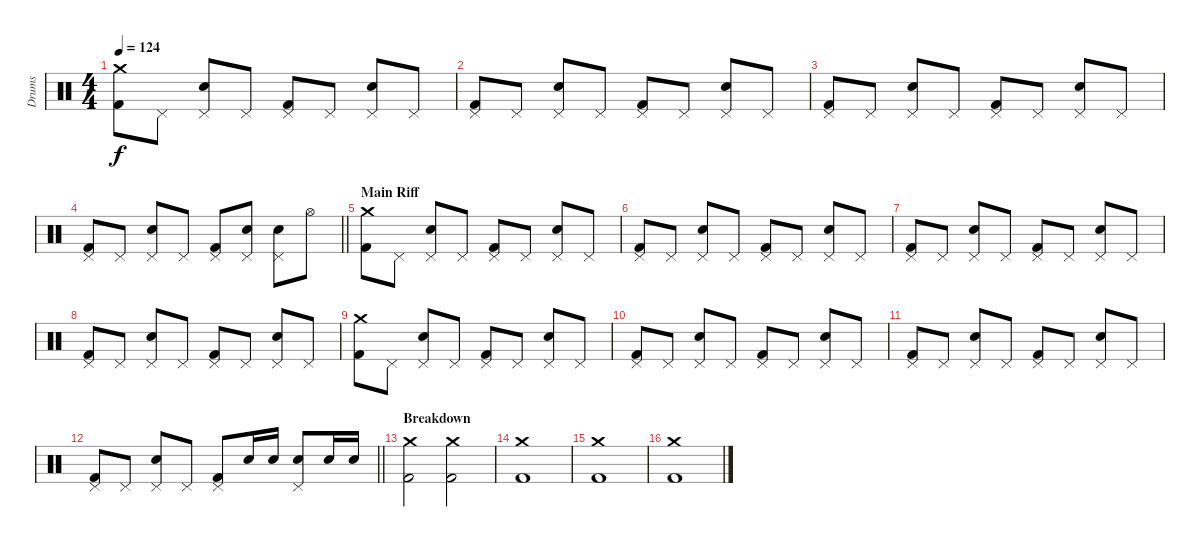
\track ("Drums" "Drums") {instrument percussion}
\staff {score}
\articulation defaults
\ts (4 4)
\tempo 124
\clef neutral
\ks c
("Kick (hit) 2" "Crash medium (hit)").8{dy f} "Pedal Hi-Hat (hit)".8 ("Electric Snare (hit)" "Pedal Hi-Hat (hit)").8 "Pedal Hi-Hat (hit)".8 ("Kick (hit) 2" "Pedal Hi-Hat (hit)").8 "Pedal Hi-Hat (hit)".8 ("Electric Snare (hit)" "Pedal Hi-Hat (hit)").8 "Pedal Hi-Hat (hit)".8 |
("Kick (hit) 2" "Pedal Hi-Hat (hit)").8 "Pedal Hi-Hat (hit)".8 ("Electric Snare (hit)" "Pedal Hi-Hat (hit)").8 "Pedal Hi-Hat (hit)".8 ("Kick (hit) 2" "Pedal Hi-Hat (hit)").8 "Pedal Hi-Hat (hit)".8 ("Electric Snare (hit)" "Pedal Hi-Hat (hit)").8 "Pedal Hi-Hat (hit)".8 |
("Kick (hit) 2" "Pedal Hi-Hat (hit)").8 "Pedal Hi-Hat (hit)".8 ("Electric Snare (hit)" "Pedal Hi-Hat (hit)").8 "Pedal Hi-Hat (hit)".8 ("Kick (hit) 2" "Pedal Hi-Hat (hit)").8 "Pedal Hi-Hat (hit)".8 ("Electric Snare (hit)" "Pedal Hi-Hat (hit)").8 "Pedal Hi-Hat (hit)".8 |
\barLineRight lightlight
("Kick (hit) 2" "Pedal Hi-Hat (hit)").8 "Pedal Hi-Hat (hit)".8 ("Electric Snare (hit)" "Pedal Hi-Hat (hit)").8 "Pedal Hi-Hat (hit)".8 ("Kick (hit) 2" "Pedal Hi-Hat (hit)").8 ("Electric Snare (hit)" "Pedal Hi-Hat (hit)").8 ("Electric Snare (hit)" "Pedal Hi-Hat (hit)").8 "Hi-Hat (open)".8 |
\section ("" "Main Riff")
("Kick (hit) 2" "Crash medium (hit)").8 "Pedal Hi-Hat (hit)".8 ("Electric Snare (hit)" "Pedal Hi-Hat (hit)").8 "Pedal Hi-Hat (hit)".8 ("Kick (hit) 2" "Pedal Hi-Hat (hit)").8 "Pedal Hi-Hat (hit)".8 ("Electric Snare (hit)" "Pedal Hi-Hat (hit)").8 "Pedal Hi-Hat (hit)".8 |
("Kick (hit) 2" "Pedal Hi-Hat (hit)").8 "Pedal Hi-Hat (hit)".8 ("Electric Snare (hit)" "Pedal Hi-Hat (hit)").8 "Pedal Hi-Hat (hit)".8 ("Kick (hit) 2" "Pedal Hi-Hat (hit)").8 "Pedal Hi-Hat (hit)".8 ("Electric Snare (hit)" "Pedal Hi-Hat (hit)").8 "Pedal Hi-Hat (hit)".8 |
("Kick (hit) 2" "Pedal Hi-Hat (hit)").8 "Pedal Hi-Hat (hit)".8 ("Electric Snare (hit)" "Pedal Hi-Hat (hit)").8 "Pedal Hi-Hat (hit)".8 ("Kick (hit) 2" "Pedal Hi-Hat (hit)").8 "Pedal Hi-Hat (hit)".8 ("Electric Snare (hit)" "Pedal Hi-Hat (hit)").8 "Pedal Hi-Hat (hit)".8 |
("Kick (hit) 2" "Pedal Hi-Hat (hit)").8 "Pedal Hi-Hat (hit)".8 ("Electric Snare (hit)" "Pedal Hi-Hat (hit)").8 "Pedal Hi-Hat (hit)".8 ("Kick (hit) 2" "Pedal Hi-Hat (hit)").8 "Pedal Hi-Hat (hit)".8 ("Electric Snare (hit)" "Pedal Hi-Hat (hit)").8 "Pedal Hi-Hat (hit)".8 |
("Kick (hit) 2" "Crash medium (hit)").8 "Pedal Hi-Hat (hit)".8 ("Electric Snare (hit)" "Pedal Hi-Hat (hit)").8 "Pedal Hi-Hat (hit)".8 ("Kick (hit) 2" "Pedal Hi-Hat (hit)").8 "Pedal Hi-Hat (hit)".8 ("Electric Snare (hit)" "Pedal Hi-Hat (hit)").8 "Pedal Hi-Hat (hit)".8 |
("Kick (hit) 2" "Pedal Hi-Hat (hit)").8 "Pedal Hi-Hat (hit)".8 ("Electric Snare (hit)" "Pedal Hi-Hat (hit)").8 "Pedal Hi-Hat (hit)".8 ("Kick (hit) 2" "Pedal Hi-Hat (hit)").8 "Pedal Hi-Hat (hit)".8 ("Electric Snare (hit)" "Pedal Hi-Hat (hit)").8 "Pedal Hi-Hat (hit)".8 |
("Kick (hit) 2" "Pedal Hi-Hat (hit)").8 "Pedal Hi-Hat (hit)".8 ("Electric Snare (hit)" "Pedal Hi-Hat (hit)").8 "Pedal Hi-Hat (hit)".8 ("Kick (hit) 2" "Pedal Hi-Hat (hit)").8 "Pedal Hi-Hat (hit)".8 ("Electric Snare (hit)" "Pedal Hi-Hat (hit)").8 "Pedal Hi-Hat (hit)".8 |
\barLineRight lightlight
("Kick (hit) 2" "Pedal Hi-Hat (hit)").8 "Pedal Hi-Hat (hit)".8 ("Electric Snare (hit)" "Pedal Hi-Hat (hit)").8 "Pedal Hi-Hat (hit)".8 ("Kick (hit) 2" "Pedal Hi-Hat (hit)").8 "Electric Snare (hit)".16 "Electric Snare (hit)".16 ("Electric Snare (hit)" "Pedal Hi-Hat (hit)").8 "Electric Snare (hit)".16 "Electric Snare (hit)".16 |
\section ("" "Breakdown")
("Kick (hit) 2" "Crash medium (hit)").2 ("Kick (hit) 2" "Crash medium (hit)").2 |
("Kick (hit) 2" "Crash medium (hit)").1 |
("Kick (hit) 2" "Crash medium (hit)").1 |
("Kick (hit) 2" "Crash medium (hit)").1
